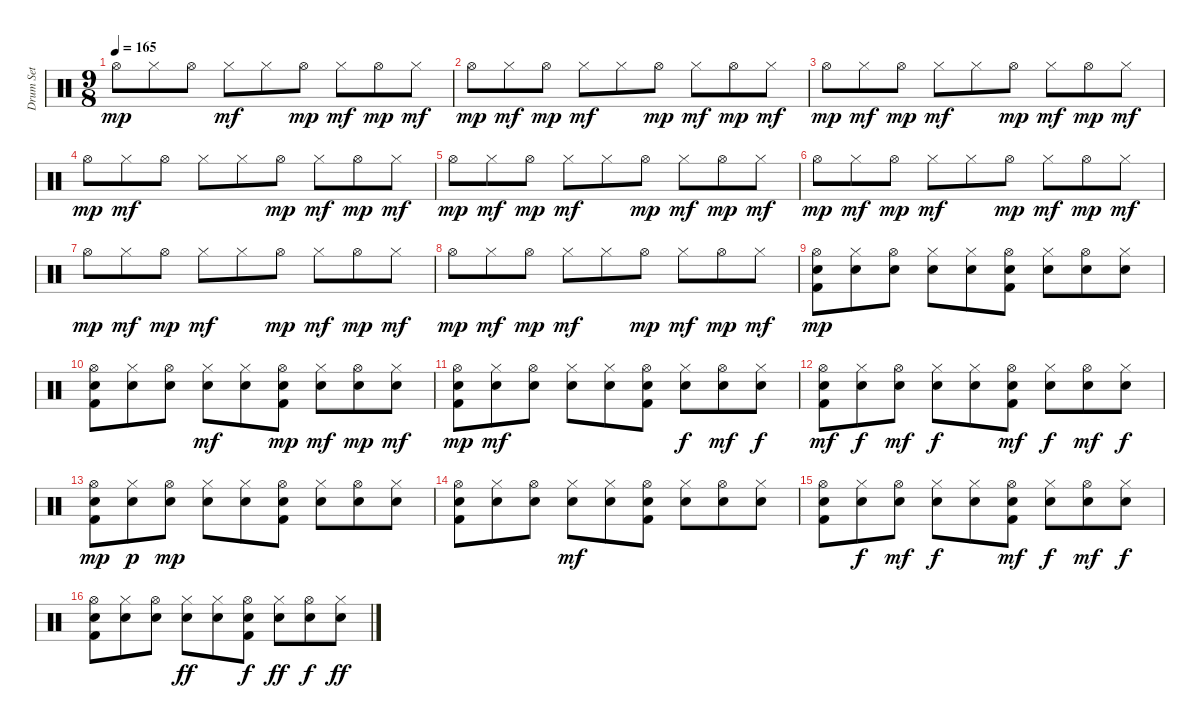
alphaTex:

\track ("Drum Set" "Drum Set") {instrument percussion}
\staff {score}
\articulation defaults
\ts (9 8)
\tempo 165
\clef neutral
\ks c "Hi-Hat (open)".8{dy mp} "Hi-Hat (closed)".8 "Hi-Hat (open)".8 "Hi-Hat (closed)".8{dy mf} "Hi-Hat (closed)".8 "Hi-Hat (open)".8{dy mp} "Hi-Hat (closed)".8{dy mf} "Hi-Hat (open)".8{dy mp} "Hi-Hat (closed)".8{dy mf}
|
"Hi-Hat (open)".8{dy mp} "Hi-Hat (closed)".8{dy mf} "Hi-Hat (open)".8{dy mp} "Hi-Hat (closed)".8{dy mf} "Hi-Hat (closed)".8 "Hi-Hat (open)".8{dy mp} "Hi-Hat (closed)".8{dy mf} "Hi-Hat (open)".8{dy mp} "Hi-Hat (closed)".8{dy mf} |
"Hi-Hat (open)".8{dy mp} "Hi-Hat (closed)".8{dy mf} "Hi-Hat (open)".8{dy mp} "Hi-Hat (closed)".8{dy mf} "Hi-Hat (closed)".8 "Hi-Hat (open)".8{dy mp} "Hi-Hat (closed)".8{dy mf} "Hi-Hat (open)".8{dy mp} "Hi-Hat (closed)".8{dy mf} |
"Hi-Hat (open)".8{dy mp} "Hi-Hat (closed)".8{dy mf} "Hi-Hat (open)".8 "Hi-Hat (closed)".8 "Hi-Hat (closed)".8 "Hi-Hat (open)".8{dy mp} "Hi-Hat (closed)".8{dy mf} "Hi-Hat (open)".8{dy mp} "Hi-Hat (closed)".8{dy mf} |
"Hi-Hat (open)".8{dy mp} "Hi-Hat (closed)".8{dy mf} "Hi-Hat (open)".8{dy mp} "Hi-Hat (closed)".8{dy mf} "Hi-Hat (closed)".8 "Hi-Hat (open)".8{dy mp} "Hi-Hat (closed)".8{dy mf} "Hi-Hat (open)".8{dy mp} "Hi-Hat (closed)".8{dy mf} |
"Hi-Hat (open)".8{dy mp} "Hi-Hat (closed)".8{dy mf} "Hi-Hat (open)".8{dy mp} "Hi-Hat (closed)".8{dy mf} "Hi-Hat (closed)".8 "Hi-Hat (open)".8{dy mp} "Hi-Hat (closed)".8{dy mf} "Hi-Hat (open)".8{dy mp} "Hi-Hat (closed)".8{dy mf} |
"Hi-Hat (open)".8{dy mp} "Hi-Hat (closed)".8{dy mf} "Hi-Hat (open)".8{dy mp} "Hi-Hat (closed)".8{dy mf} "Hi-Hat (closed)".8 "Hi-Hat (open)".8{dy mp} "Hi-Hat (closed)".8{dy mf} "Hi-Hat (open)".8{dy mp} "Hi-Hat (closed)".8{dy mf} |
"Hi-Hat (open)".8{dy mp} "Hi-Hat (closed)".8{dy mf} "Hi-Hat (open)".8{dy mp} "Hi-Hat (closed)".8{dy mf} "Hi-Hat (closed)".8 "Hi-Hat (open)".8{dy mp} "Hi-Hat (closed)".8{dy mf} "Hi-Hat (open)".8{dy mp} "Hi-Hat (closed)".8{dy mf} |
("Kick (hit) 2" "Snare (hit) 2" "Hi-Hat (open)").8{dy mp} ("Snare (hit) 2" "Hi-Hat (closed)").8 ("Snare (hit) 2" "Hi-Hat (open)").8 ("Snare (hit) 2" "Hi-Hat (closed)").8 ("Snare (hit) 2" "Hi-Hat (closed)").8 ("Kick (hit) 2" "Snare (hit) 2" "Hi-Hat (open)").8 ("Snare (hit) 2" "Hi-Hat (closed)").8 ("Snare (hit) 2" "Hi-Hat (open)").8 ("Snare (hit) 2" "Hi-Hat (closed)").8 |
("Kick (hit) 2" "Snare (hit) 2" "Hi-Hat (open)").8 ("Snare (hit) 2" "Hi-Hat (closed)").8 ("Snare (hit) 2" "Hi-Hat (open)").8 ("Snare (hit) 2" "Hi-Hat (closed)").8{dy mf} ("Snare (hit) 2" "Hi-Hat (closed)").8 ("Kick (hit) 2" "Snare (hit) 2" "Hi-Hat (open)").8{dy mp} ("Snare (hit) 2" "Hi-Hat (closed)").8{dy mf} ("Snare (hit) 2" "Hi-Hat (open)").8{dy mp} ("Snare (hit) 2" "Hi-Hat (closed)").8{dy mf} |
("Kick (hit) 2" "Snare (hit) 2" "Hi-Hat (open)").8{dy mp} ("Snare (hit) 2" "Hi-Hat (closed)").8{dy mf} ("Snare (hit) 2" "Hi-Hat (open)").8 ("Snare (hit) 2" "Hi-Hat (closed)").8 ("Snare (hit) 2" "Hi-Hat (closed)").8 ("Kick (hit) 2" "Snare (hit) 2" "Hi-Hat (open)").8 ("Snare (hit) 2" "Hi-Hat (closed)").8{dy f} ("Snare (hit) 2" "Hi-Hat (open)").8{dy mf} ("Snare (hit) 2" "Hi-Hat (closed)").8{dy f} |
("Kick (hit) 2" "Snare (hit) 2" "Hi-Hat (open)").8{dy mf} ("Snare (hit) 2" "Hi-Hat (closed)").8{dy f} ("Snare (hit) 2" "Hi-Hat (open)").8{dy mf} ("Snare (hit) 2" "Hi-Hat (closed)").8{dy f} ("Snare (hit) 2" "Hi-Hat (closed)").8 ("Kick (hit) 2" "Snare (hit) 2" "Hi-Hat (open)").8{dy mf} ("Snare (hit) 2" "Hi-Hat (closed)").8{dy f} ("Snare (hit) 2" "Hi-Hat (open)").8{dy mf} ("Snare (hit) 2" "Hi-Hat (closed)").8{dy f} |
("Kick (hit) 2" "Snare (hit) 2" "Hi-Hat (open)").8{dy mp} ("Snare (hit) 2" "Hi-Hat (closed)").8{dy p} ("Snare (hit) 2" "Hi-Hat (open)").8{dy mp} ("Snare (hit) 2" "Hi-Hat (closed)").8 ("Snare (hit) 2" "Hi-Hat (closed)").8 ("Kick (hit) 2" "Snare (hit) 2" "Hi-Hat (open)").8 ("Snare (hit) 2" "Hi-Hat (closed)").8 ("Snare (hit) 2" "Hi-Hat (open)").8 ("Snare (hit) 2" "Hi-Hat (closed)").8 |
("Kick (hit) 2" "Snare (hit) 2" "Hi-Hat (open)").8 ("Snare (hit) 2" "Hi-Hat (closed)").8 ("Snare (hit) 2" "Hi-Hat (open)").8 ("Snare (hit) 2" "Hi-Hat (closed)").8{dy mf} ("Snare (hit) 2" "Hi-Hat (closed)").8 ("Kick (hit) 2" "Snare (hit) 2" "Hi-Hat (open)").8 ("Snare (hit) 2" "Hi-Hat (closed)").8 ("Snare (hit) 2" "Hi-Hat (open)").8 ("Snare (hit) 2" "Hi-Hat (closed)").8 |
("Kick (hit) 2" "Snare (hit) 2" "Hi-Hat (open)").8 ("Snare (hit) 2" "Hi-Hat (closed)").8{dy f} ("Snare (hit) 2" "Hi-Hat (open)").8{dy mf} ("Snare (hit) 2" "Hi-Hat (closed)").8{dy f} ("Snare (hit) 2" "Hi-Hat (closed)").8 ("Kick (hit) 2" "Snare (hit) 2" "Hi-Hat (open)").8{dy mf} ("Snare (hit) 2" "Hi-Hat (closed)").8{dy f} ("Snare (hit) 2" "Hi-Hat (open)").8{dy mf} ("Snare (hit) 2" "Hi-Hat (closed)").8{dy f} |
("Kick (hit) 2" "Snare (hit) 2" "Hi-Hat (open)").8 ("Snare (hit) 2" "Hi-Hat (closed)").8 ("Snare (hit) 2" "Hi-Hat (open)").8 ("Snare (hit) 2" "Hi-Hat (closed)").8{dy ff} ("Snare (hit) 2" "Hi-Hat (closed)").8 ("Kick (hit) 2" "Snare (hit) 2" "Hi-Hat (open)").8{dy f} ("Snare (hit) 2" "Hi-Hat (closed)").8{dy ff} ("Snare (hit) 2" "Hi-Hat (open)").8{dy f} ("Snare (hit) 2" "Hi-Hat (closed)").8{dy ff}
